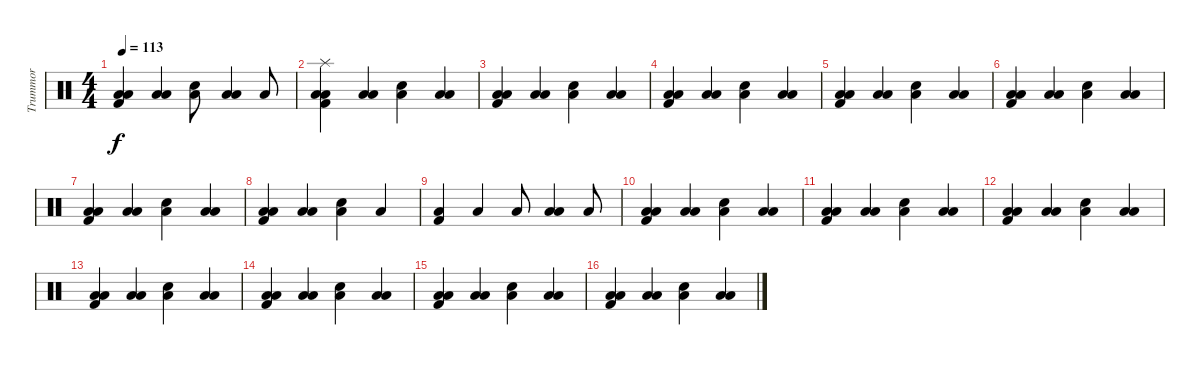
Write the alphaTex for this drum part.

\track ("Trummor" "Trummor") {instrument percussion}
\staff {score}
\articulation defaults
\ts (4 4)
\tempo 113
\clef neutral
\ks c
("Low Floor Tom (hit)" "Low Floor Tom (hit)" "Kick (hit) 2").4{dy f} ("Low Floor Tom (hit)" "Low Floor Tom (hit)").4 ("Low Floor Tom (hit)" "Snare (hit) 2").8 ("Low Floor Tom (hit)" "Low Floor Tom (hit)").4 "Low Floor Tom (hit)".8 |
("Splash (hit)" "Low Floor Tom (hit)" "Low Floor Tom (hit)" "Kick (hit) 2").4 ("Low Floor Tom (hit)" "Low Floor Tom (hit)").4 ("Low Floor Tom (hit)" "Snare (hit) 2").4 ("Low Floor Tom (hit)" "Low Floor Tom (hit)").4 |
("Low Floor Tom (hit)" "Low Floor Tom (hit)" "Kick (hit) 2").4 ("Low Floor Tom (hit)" "Low Floor Tom (hit)").4 ("Low Floor Tom (hit)" "Snare (hit) 2").4 ("Low Floor Tom (hit)" "Low Floor Tom (hit)").4 |
("Low Floor Tom (hit)" "Low Floor Tom (hit)" "Kick (hit) 2").4 ("Low Floor Tom (hit)" "Low Floor Tom (hit)").4 ("Low Floor Tom (hit)" "Snare (hit) 2").4 ("Low Floor Tom (hit)" "Low Floor Tom (hit)").4 |
("Low Floor Tom (hit)" "Low Floor Tom (hit)" "Kick (hit) 2").4 ("Low Floor Tom (hit)" "Low Floor Tom (hit)").4 ("Low Floor Tom (hit)" "Snare (hit) 2").4 ("Low Floor Tom (hit)" "Low Floor Tom (hit)").4 |
("Low Floor Tom (hit)" "Low Floor Tom (hit)" "Kick (hit) 2").4 ("Low Floor Tom (hit)" "Low Floor Tom (hit)").4 ("Low Floor Tom (hit)" "Snare (hit) 2").4 ("Low Floor Tom (hit)" "Low Floor Tom (hit)").4 |
("Low Floor Tom (hit)" "Low Floor Tom (hit)" "Kick (hit) 2").4 ("Low Floor Tom (hit)" "Low Floor Tom (hit)").4 ("Low Floor Tom (hit)" "Snare (hit) 2").4 ("Low Floor Tom (hit)" "Low Floor Tom (hit)").4 |
("Low Floor Tom (hit)" "Low Floor Tom (hit)" "Kick (hit) 2").4 ("Low Floor Tom (hit)" "Low Floor Tom (hit)").4 ("Low Floor Tom (hit)" "Snare (hit) 2").4 "Low Floor Tom (hit)".4 |
("Low Floor Tom (hit)" "Kick (hit) 2").4 "Low Floor Tom (hit)".4 "Low Floor Tom (hit)".8 ("Low Floor Tom (hit)" "Low Tom (hit)").4 "Low Floor Tom (hit)".8 |
("Low Floor Tom (hit)" "Low Floor Tom (hit)" "Kick (hit) 2").4 ("Low Floor Tom (hit)" "Low Floor Tom (hit)").4 ("Low Floor Tom (hit)" "Snare (hit) 2").4 ("Low Floor Tom (hit)" "Low Floor Tom (hit)").4 |
("Low Floor Tom (hit)" "Low Floor Tom (hit)" "Kick (hit) 2").4 ("Low Floor Tom (hit)" "Low Floor Tom (hit)").4 ("Low Floor Tom (hit)" "Snare (hit) 2").4 ("Low Floor Tom (hit)" "Low Floor Tom (hit)").4 |
("Low Floor Tom (hit)" "Low Floor Tom (hit)" "Kick (hit) 2").4 ("Low Floor Tom (hit)" "Low Floor Tom (hit)").4 ("Low Floor Tom (hit)" "Snare (hit) 2").4 ("Low Floor Tom (hit)" "Low Floor Tom (hit)").4 |
("Low Floor Tom (hit)" "Low Floor Tom (hit)" "Kick (hit) 2").4 ("Low Floor Tom (hit)" "Low Floor Tom (hit)").4 ("Low Floor Tom (hit)" "Snare (hit) 2").4 ("Low Floor Tom (hit)" "Low Floor Tom (hit)").4 |
("Low Floor Tom (hit)" "Low Floor Tom (hit)" "Kick (hit) 2").4 ("Low Floor Tom (hit)" "Low Floor Tom (hit)").4 ("Low Floor Tom (hit)" "Snare (hit) 2").4 ("Low Floor Tom (hit)" "Low Floor Tom (hit)").4 |
("Low Floor Tom (hit)" "Low Floor Tom (hit)" "Kick (hit) 2").4 ("Low Floor Tom (hit)" "Low Floor Tom (hit)").4 ("Low Floor Tom (hit)" "Snare (hit) 2").4 ("Low Floor Tom (hit)" "Low Floor Tom (hit)").4 |
("Low Floor Tom (hit)" "Low Floor Tom (hit)" "Kick (hit) 2").4 ("Low Floor Tom (hit)" "Low Floor Tom (hit)").4 ("Low Floor Tom (hit)" "Snare (hit) 2").4 ("Low Floor Tom (hit)" "Low Floor Tom (hit)").4
